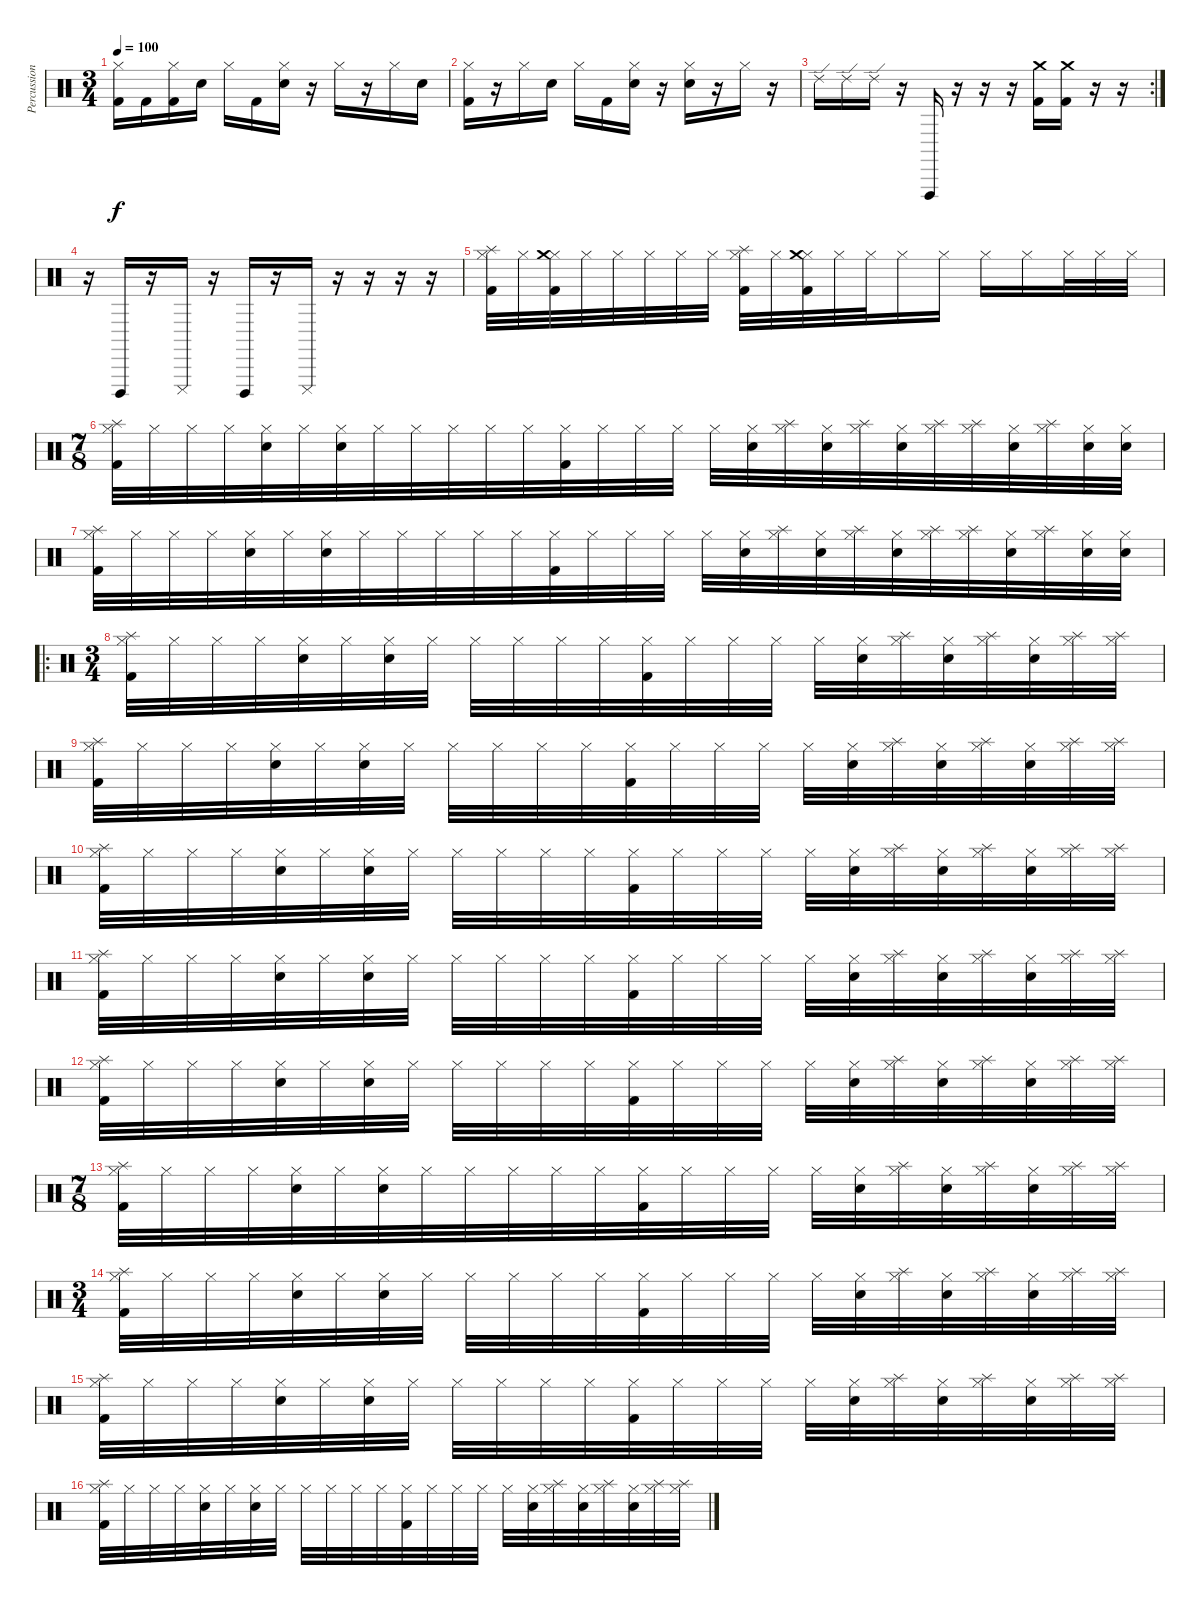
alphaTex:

\track ("Percussion" "Percussion") {instrument percussion}
\staff {score}
\articulation defaults
\ts (3 4)
\tempo 100
\clef neutral
\ks c
("Kick (hit) 2" "Hi-Hat (closed)").16{dy f} "Kick (hit) 2".16 ("Kick (hit) 2" "Hi-Hat (closed)").16 "Snare (hit) 2".16 "Hi-Hat (closed)".16 "Kick (hit) 2".16 ("Snare (hit) 2" "Hi-Hat (closed)").16 r.16 "Hi-Hat (closed)".16 r.16 "Hi-Hat (closed)".16 "Snare (hit) 2".16 |
("Kick (hit) 2" "Hi-Hat (closed)").16 r.16 "Hi-Hat (closed)".16 "Snare (hit) 2".16 "Hi-Hat (closed)".16 "Kick (hit) 2".16 ("Snare (hit) 2" "Hi-Hat (closed)").16 r.16 ("Snare (hit) 2" "Hi-Hat (closed)").16 r.16 "Hi-Hat (closed)".16 r.16 |
\rc 2 "Ride (edge) 2".16 "Ride (edge) 2".16 "Ride (edge) 2".16
r.16 "Vibraslap (hit)".16 r.16 r.16 r.16 ("Crash medium (hit)" "Kick (hit) 2").16 ("Crash medium (hit)" "Kick (hit) 2").16 r.16 r.16 |
r.16 "Cuica (open)".16 r.16 "Cuica (mute)".16 r.16 "Cuica (open)".16 r.16 "Cuica (mute)".16 r.16 r.16 r.16 r.16 |
("Kick (hit) 2" "Hi-Hat (closed)" "Splash (hit)").32 "Hi-Hat (closed)".32 ("Kick (hit) 2" "Hi-Hat (closed)" "Crash medium (hit)").32 "Hi-Hat (closed)".32 "Hi-Hat (closed)".32 "Hi-Hat (closed)".32 "Hi-Hat (closed)".32 "Hi-Hat (closed)".32 ("Kick (hit) 2" "Hi-Hat (closed)" "Splash (hit)").32 "Hi-Hat (closed)".32 ("Kick (hit) 2" "Hi-Hat (closed)" "Crash medium (hit)").32 "Hi-Hat (closed)".32 "Hi-Hat (closed)".32 "Hi-Hat (closed)".16 "Hi-Hat (closed)".16 "Hi-Hat (closed)".16 "Hi-Hat (closed)".16 "Hi-Hat (closed)".32 "Hi-Hat (closed)".32 "Hi-Hat (closed)".32 |
\ts (7 8)
("Kick (hit) 2" "Hi-Hat (closed)" "Splash (hit)").32 "Hi-Hat (closed)".32 "Hi-Hat (closed)".32 "Hi-Hat (closed)".32 ("Snare (hit) 2" "Hi-Hat (closed)").32 "Hi-Hat (closed)".32 ("Snare (hit) 2" "Hi-Hat (closed)").32 "Hi-Hat (closed)".32 "Hi-Hat (closed)".32 "Hi-Hat (closed)".32 "Hi-Hat (closed)".32 "Hi-Hat (closed)".32 ("Kick (hit) 2" "Hi-Hat (closed)").32 "Hi-Hat (closed)".32 "Hi-Hat (closed)".32 "Hi-Hat (closed)".32 "Hi-Hat (closed)".32 ("Snare (hit) 2" "Hi-Hat (closed)").32 ("Hi-Hat (closed)" "Splash (hit)").32 ("Snare (hit) 2" "Hi-Hat (closed)").32 ("Hi-Hat (closed)" "Splash (hit)").32 ("Snare (hit) 2" "Hi-Hat (closed)").32 ("Hi-Hat (closed)" "Splash (hit)").32 ("Hi-Hat (closed)" "Splash (hit)").32 ("Snare (hit) 2" "Hi-Hat (closed)").32 ("Hi-Hat (closed)" "Splash (hit)").32 ("Snare (hit) 2" "Hi-Hat (closed)").32 ("Snare (hit) 2" "Hi-Hat (closed)").32 |
("Kick (hit) 2" "Hi-Hat (closed)" "Splash (hit)").32 "Hi-Hat (closed)".32 "Hi-Hat (closed)".32 "Hi-Hat (closed)".32 ("Snare (hit) 2" "Hi-Hat (closed)").32 "Hi-Hat (closed)".32 ("Snare (hit) 2" "Hi-Hat (closed)").32 "Hi-Hat (closed)".32 "Hi-Hat (closed)".32 "Hi-Hat (closed)".32 "Hi-Hat (closed)".32 "Hi-Hat (closed)".32 ("Kick (hit) 2" "Hi-Hat (closed)").32 "Hi-Hat (closed)".32 "Hi-Hat (closed)".32 "Hi-Hat (closed)".32 "Hi-Hat (closed)".32 ("Snare (hit) 2" "Hi-Hat (closed)").32 ("Hi-Hat (closed)" "Splash (hit)").32 ("Snare (hit) 2" "Hi-Hat (closed)").32 ("Hi-Hat (closed)" "Splash (hit)").32 ("Snare (hit) 2" "Hi-Hat (closed)").32 ("Hi-Hat (closed)" "Splash (hit)").32 ("Hi-Hat (closed)" "Splash (hit)").32 ("Snare (hit) 2" "Hi-Hat (closed)").32 ("Hi-Hat (closed)" "Splash (hit)").32 ("Snare (hit) 2" "Hi-Hat (closed)").32 ("Snare (hit) 2" "Hi-Hat (closed)").32 |
\ro
\ts (3 4)
("Kick (hit) 2" "Hi-Hat (closed)" "Splash (hit)").32 "Hi-Hat (closed)".32 "Hi-Hat (closed)".32 "Hi-Hat (closed)".32 ("Snare (hit) 2" "Hi-Hat (closed)").32 "Hi-Hat (closed)".32 ("Snare (hit) 2" "Hi-Hat (closed)").32 "Hi-Hat (closed)".32 "Hi-Hat (closed)".32 "Hi-Hat (closed)".32 "Hi-Hat (closed)".32 "Hi-Hat (closed)".32 ("Kick (hit) 2" "Hi-Hat (closed)").32 "Hi-Hat (closed)".32 "Hi-Hat (closed)".32 "Hi-Hat (closed)".32 "Hi-Hat (closed)".32 ("Snare (hit) 2" "Hi-Hat (closed)").32 ("Hi-Hat (closed)" "Splash (hit)").32 ("Snare (hit) 2" "Hi-Hat (closed)").32 ("Hi-Hat (closed)" "Splash (hit)").32 ("Snare (hit) 2" "Hi-Hat (closed)").32 ("Hi-Hat (closed)" "Splash (hit)").32 ("Hi-Hat (closed)" "Splash (hit)").32 |
("Kick (hit) 2" "Hi-Hat (closed)" "Splash (hit)").32 "Hi-Hat (closed)".32 "Hi-Hat (closed)".32 "Hi-Hat (closed)".32 ("Snare (hit) 2" "Hi-Hat (closed)").32 "Hi-Hat (closed)".32 ("Snare (hit) 2" "Hi-Hat (closed)").32 "Hi-Hat (closed)".32 "Hi-Hat (closed)".32 "Hi-Hat (closed)".32 "Hi-Hat (closed)".32 "Hi-Hat (closed)".32 ("Kick (hit) 2" "Hi-Hat (closed)").32 "Hi-Hat (closed)".32 "Hi-Hat (closed)".32 "Hi-Hat (closed)".32 "Hi-Hat (closed)".32 ("Snare (hit) 2" "Hi-Hat (closed)").32 ("Hi-Hat (closed)" "Splash (hit)").32 ("Snare (hit) 2" "Hi-Hat (closed)").32 ("Hi-Hat (closed)" "Splash (hit)").32 ("Snare (hit) 2" "Hi-Hat (closed)").32 ("Hi-Hat (closed)" "Splash (hit)").32 ("Hi-Hat (closed)" "Splash (hit)").32 |
("Kick (hit) 2" "Hi-Hat (closed)" "Splash (hit)").32 "Hi-Hat (closed)".32 "Hi-Hat (closed)".32 "Hi-Hat (closed)".32 ("Snare (hit) 2" "Hi-Hat (closed)").32 "Hi-Hat (closed)".32 ("Snare (hit) 2" "Hi-Hat (closed)").32 "Hi-Hat (closed)".32 "Hi-Hat (closed)".32 "Hi-Hat (closed)".32 "Hi-Hat (closed)".32 "Hi-Hat (closed)".32 ("Kick (hit) 2" "Hi-Hat (closed)").32 "Hi-Hat (closed)".32 "Hi-Hat (closed)".32 "Hi-Hat (closed)".32 "Hi-Hat (closed)".32 ("Snare (hit) 2" "Hi-Hat (closed)").32 ("Hi-Hat (closed)" "Splash (hit)").32 ("Snare (hit) 2" "Hi-Hat (closed)").32 ("Hi-Hat (closed)" "Splash (hit)").32 ("Snare (hit) 2" "Hi-Hat (closed)").32 ("Hi-Hat (closed)" "Splash (hit)").32 ("Hi-Hat (closed)" "Splash (hit)").32 |
("Kick (hit) 2" "Hi-Hat (closed)" "Splash (hit)").32 "Hi-Hat (closed)".32 "Hi-Hat (closed)".32 "Hi-Hat (closed)".32 ("Snare (hit) 2" "Hi-Hat (closed)").32 "Hi-Hat (closed)".32 ("Snare (hit) 2" "Hi-Hat (closed)").32 "Hi-Hat (closed)".32 "Hi-Hat (closed)".32 "Hi-Hat (closed)".32 "Hi-Hat (closed)".32 "Hi-Hat (closed)".32 ("Kick (hit) 2" "Hi-Hat (closed)").32 "Hi-Hat (closed)".32 "Hi-Hat (closed)".32 "Hi-Hat (closed)".32 "Hi-Hat (closed)".32 ("Snare (hit) 2" "Hi-Hat (closed)").32 ("Hi-Hat (closed)" "Splash (hit)").32 ("Snare (hit) 2" "Hi-Hat (closed)").32 ("Hi-Hat (closed)" "Splash (hit)").32 ("Snare (hit) 2" "Hi-Hat (closed)").32 ("Hi-Hat (closed)" "Splash (hit)").32 ("Hi-Hat (closed)" "Splash (hit)").32 |
("Kick (hit) 2" "Hi-Hat (closed)" "Splash (hit)").32 "Hi-Hat (closed)".32 "Hi-Hat (closed)".32 "Hi-Hat (closed)".32 ("Snare (hit) 2" "Hi-Hat (closed)").32 "Hi-Hat (closed)".32 ("Snare (hit) 2" "Hi-Hat (closed)").32 "Hi-Hat (closed)".32 "Hi-Hat (closed)".32 "Hi-Hat (closed)".32 "Hi-Hat (closed)".32 "Hi-Hat (closed)".32 ("Kick (hit) 2" "Hi-Hat (closed)").32 "Hi-Hat (closed)".32 "Hi-Hat (closed)".32 "Hi-Hat (closed)".32 "Hi-Hat (closed)".32 ("Snare (hit) 2" "Hi-Hat (closed)").32 ("Hi-Hat (closed)" "Splash (hit)").32 ("Snare (hit) 2" "Hi-Hat (closed)").32 ("Hi-Hat (closed)" "Splash (hit)").32 ("Snare (hit) 2" "Hi-Hat (closed)").32 ("Hi-Hat (closed)" "Splash (hit)").32 ("Hi-Hat (closed)" "Splash (hit)").32 |
\ts (7 8)
("Kick (hit) 2" "Hi-Hat (closed)" "Splash (hit)").32 "Hi-Hat (closed)".32 "Hi-Hat (closed)".32 "Hi-Hat (closed)".32 ("Snare (hit) 2" "Hi-Hat (closed)").32 "Hi-Hat (closed)".32 ("Snare (hit) 2" "Hi-Hat (closed)").32 "Hi-Hat (closed)".32 "Hi-Hat (closed)".32 "Hi-Hat (closed)".32 "Hi-Hat (closed)".32 "Hi-Hat (closed)".32 ("Kick (hit) 2" "Hi-Hat (closed)").32 "Hi-Hat (closed)".32 "Hi-Hat (closed)".32 "Hi-Hat (closed)".32 "Hi-Hat (closed)".32 ("Snare (hit) 2" "Hi-Hat (closed)").32 ("Hi-Hat (closed)" "Splash (hit)").32 ("Snare (hit) 2" "Hi-Hat (closed)").32 ("Hi-Hat (closed)" "Splash (hit)").32 ("Snare (hit) 2" "Hi-Hat (closed)").32 ("Hi-Hat (closed)" "Splash (hit)").32 ("Hi-Hat (closed)" "Splash (hit)").32 |
\ts (3 4)
("Kick (hit) 2" "Hi-Hat (closed)" "Splash (hit)").32 "Hi-Hat (closed)".32 "Hi-Hat (closed)".32 "Hi-Hat (closed)".32 ("Snare (hit) 2" "Hi-Hat (closed)").32 "Hi-Hat (closed)".32 ("Snare (hit) 2" "Hi-Hat (closed)").32 "Hi-Hat (closed)".32 "Hi-Hat (closed)".32 "Hi-Hat (closed)".32 "Hi-Hat (closed)".32 "Hi-Hat (closed)".32 ("Kick (hit) 2" "Hi-Hat (closed)").32 "Hi-Hat (closed)".32 "Hi-Hat (closed)".32 "Hi-Hat (closed)".32 "Hi-Hat (closed)".32 ("Snare (hit) 2" "Hi-Hat (closed)").32 ("Hi-Hat (closed)" "Splash (hit)").32 ("Snare (hit) 2" "Hi-Hat (closed)").32 ("Hi-Hat (closed)" "Splash (hit)").32 ("Snare (hit) 2" "Hi-Hat (closed)").32 ("Hi-Hat (closed)" "Splash (hit)").32 ("Hi-Hat (closed)" "Splash (hit)").32 |
("Kick (hit) 2" "Hi-Hat (closed)" "Splash (hit)").32 "Hi-Hat (closed)".32 "Hi-Hat (closed)".32 "Hi-Hat (closed)".32 ("Snare (hit) 2" "Hi-Hat (closed)").32 "Hi-Hat (closed)".32 ("Snare (hit) 2" "Hi-Hat (closed)").32 "Hi-Hat (closed)".32 "Hi-Hat (closed)".32 "Hi-Hat (closed)".32 "Hi-Hat (closed)".32 "Hi-Hat (closed)".32 ("Kick (hit) 2" "Hi-Hat (closed)").32 "Hi-Hat (closed)".32 "Hi-Hat (closed)".32 "Hi-Hat (closed)".32 "Hi-Hat (closed)".32 ("Snare (hit) 2" "Hi-Hat (closed)").32 ("Hi-Hat (closed)" "Splash (hit)").32 ("Snare (hit) 2" "Hi-Hat (closed)").32 ("Hi-Hat (closed)" "Splash (hit)").32 ("Snare (hit) 2" "Hi-Hat (closed)").32 ("Hi-Hat (closed)" "Splash (hit)").32 ("Hi-Hat (closed)" "Splash (hit)").32 |
("Kick (hit) 2" "Hi-Hat (closed)" "Splash (hit)").32 "Hi-Hat (closed)".32 "Hi-Hat (closed)".32 "Hi-Hat (closed)".32 ("Snare (hit) 2" "Hi-Hat (closed)").32 "Hi-Hat (closed)".32 ("Snare (hit) 2" "Hi-Hat (closed)").32 "Hi-Hat (closed)".32 "Hi-Hat (closed)".32 "Hi-Hat (closed)".32 "Hi-Hat (closed)".32 "Hi-Hat (closed)".32 ("Kick (hit) 2" "Hi-Hat (closed)").32 "Hi-Hat (closed)".32 "Hi-Hat (closed)".32 "Hi-Hat (closed)".32 "Hi-Hat (closed)".32 ("Snare (hit) 2" "Hi-Hat (closed)").32 ("Hi-Hat (closed)" "Splash (hit)").32 ("Snare (hit) 2" "Hi-Hat (closed)").32 ("Hi-Hat (closed)" "Splash (hit)").32 ("Snare (hit) 2" "Hi-Hat (closed)").32 ("Hi-Hat (closed)" "Splash (hit)").32 ("Hi-Hat (closed)" "Splash (hit)").32
